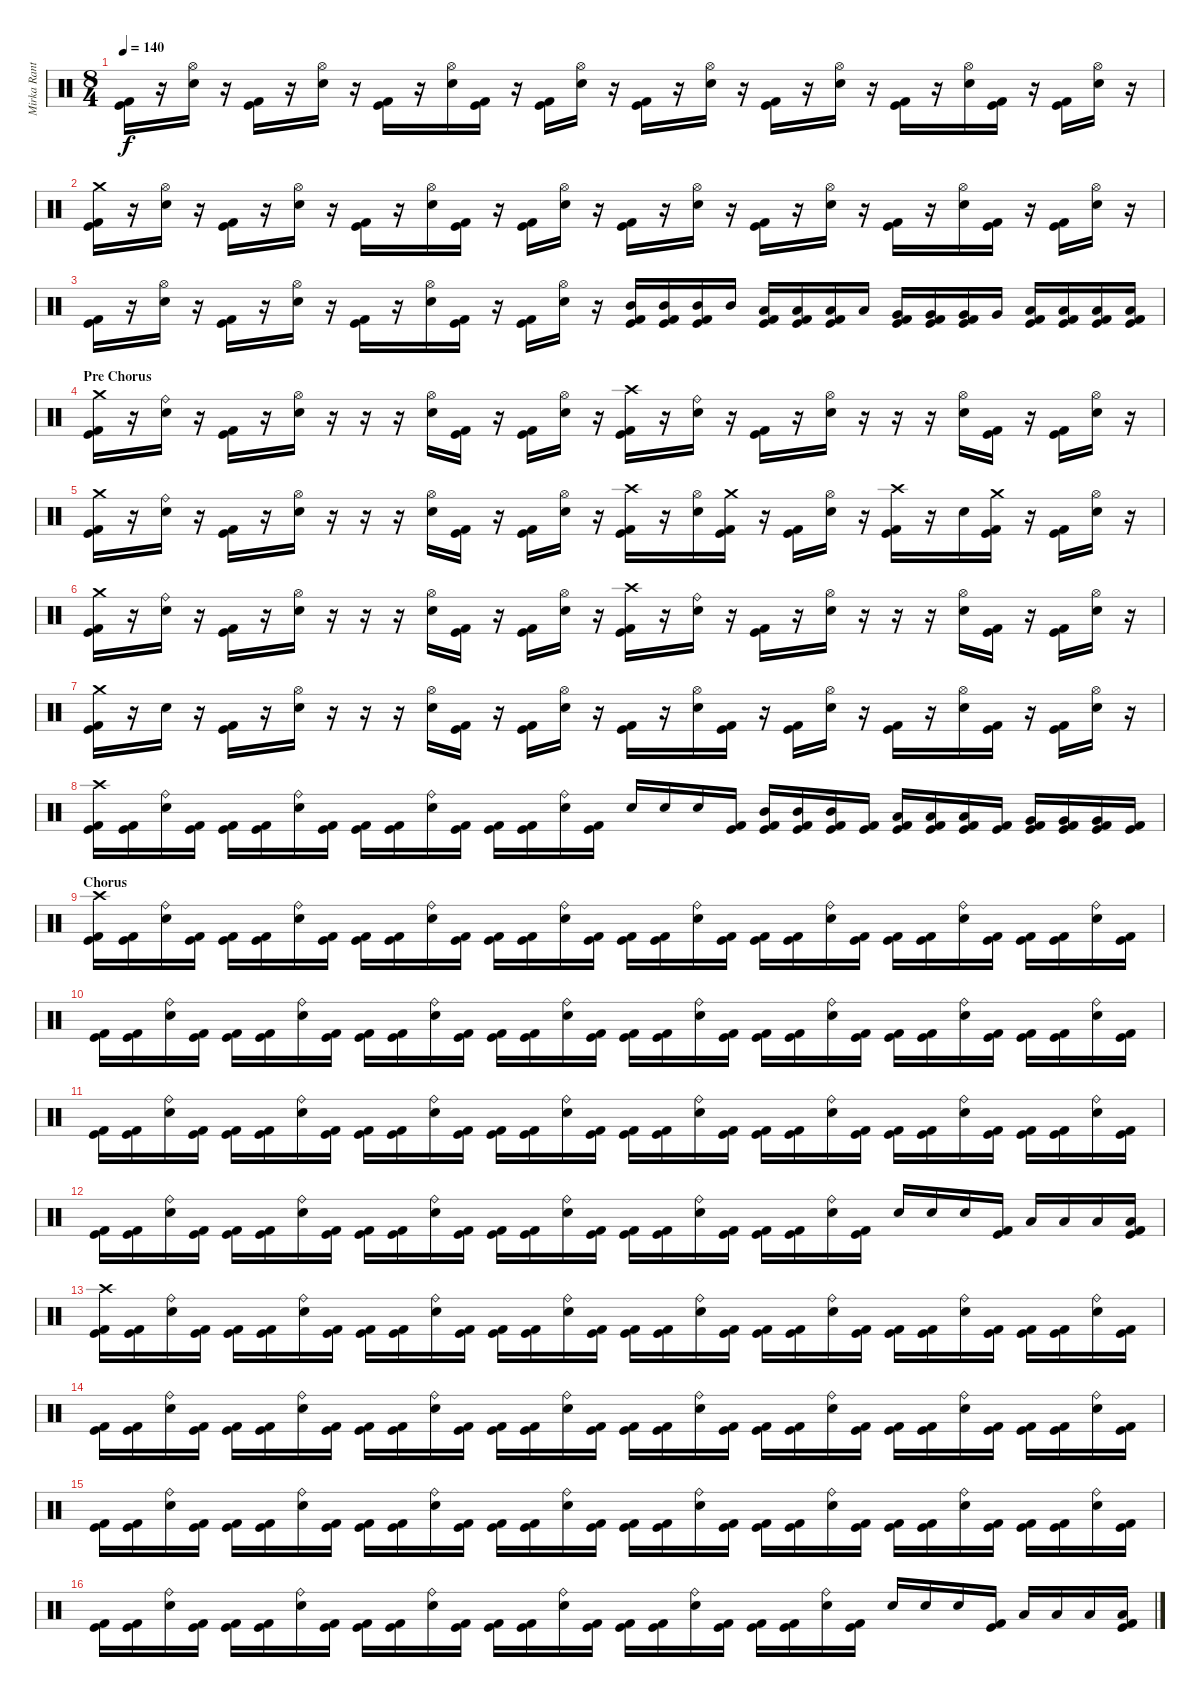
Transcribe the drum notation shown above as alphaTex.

\track ("Mirka Rantanen" "Mirka Rant") {instrument percussion}
\staff {score}
\articulation defaults
\ts (8 4)
\tempo 140
\clef neutral
\ks c
("Kick (hit) 2" "Kick (hit)").16{dy f} r.16 ("Hi-Hat (open)" "Electric Snare (hit)").16 r.16 ("Kick (hit) 2" "Kick (hit)").16 r.16 ("Hi-Hat (open)" "Electric Snare (hit)").16 r.16 ("Kick (hit) 2" "Kick (hit)").16 r.16 ("Hi-Hat (open)" "Electric Snare (hit)").16 ("Kick (hit) 2" "Kick (hit)").16 r.16 ("Kick (hit) 2" "Kick (hit)").16 ("Hi-Hat (open)" "Electric Snare (hit)").16 r.16 ("Kick (hit) 2" "Kick (hit)").16 r.16 ("Hi-Hat (open)" "Electric Snare (hit)").16 r.16 ("Kick (hit) 2" "Kick (hit)").16 r.16 ("Hi-Hat (open)" "Electric Snare (hit)").16 r.16 ("Kick (hit) 2" "Kick (hit)").16 r.16 ("Hi-Hat (open)" "Electric Snare (hit)").16 ("Kick (hit) 2" "Kick (hit)").16 r.16 ("Kick (hit) 2" "Kick (hit)").16 ("Hi-Hat (open)" "Electric Snare (hit)").16 r.16 |
("Crash medium (hit)" "Kick (hit) 2" "Kick (hit)").16 r.16 ("Hi-Hat (open)" "Electric Snare (hit)").16 r.16 ("Kick (hit) 2" "Kick (hit)").16 r.16 ("Hi-Hat (open)" "Electric Snare (hit)").16 r.16 ("Kick (hit) 2" "Kick (hit)").16 r.16 ("Hi-Hat (open)" "Electric Snare (hit)").16 ("Kick (hit) 2" "Kick (hit)").16 r.16 ("Kick (hit) 2" "Kick (hit)").16 ("Hi-Hat (open)" "Electric Snare (hit)").16 r.16 ("Kick (hit) 2" "Kick (hit)").16 r.16 ("Hi-Hat (open)" "Electric Snare (hit)").16 r.16 ("Kick (hit) 2" "Kick (hit)").16 r.16 ("Hi-Hat (open)" "Electric Snare (hit)").16 r.16 ("Kick (hit) 2" "Kick (hit)").16 r.16 ("Hi-Hat (open)" "Electric Snare (hit)").16 ("Kick (hit) 2" "Kick (hit)").16 r.16 ("Kick (hit) 2" "Kick (hit)").16 ("Hi-Hat (open)" "Electric Snare (hit)").16 r.16 |
("Kick (hit) 2" "Kick (hit)").16 r.16 ("Hi-Hat (open)" "Electric Snare (hit)").16 r.16 ("Kick (hit) 2" "Kick (hit)").16 r.16 ("Hi-Hat (open)" "Electric Snare (hit)").16 r.16 ("Kick (hit) 2" "Kick (hit)").16 r.16 ("Hi-Hat (open)" "Electric Snare (hit)").16 ("Kick (hit) 2" "Kick (hit)").16 r.16 ("Kick (hit) 2" "Kick (hit)").16 ("Hi-Hat (open)" "Electric Snare (hit)").16 r.16 ("Mid Tom (hit)" "Kick (hit) 2" "Kick (hit)").16 ("Mid Tom (hit)" "Kick (hit) 2" "Kick (hit)").16 ("Mid Tom (hit)" "Kick (hit) 2" "Kick (hit)").16 "Mid Tom (hit)".16 ("Low Tom (hit)" "Kick (hit) 2" "Kick (hit)").16 ("Low Tom (hit)" "Kick (hit) 2" "Kick (hit)").16 ("Low Tom (hit)" "Kick (hit) 2" "Kick (hit)").16 "Low Tom (hit)".16 ("Very Low Tom (hit)" "Kick (hit)" "Kick (hit) 2").16 ("Very Low Tom (hit)" "Kick (hit)" "Kick (hit) 2").16 ("Very Low Tom (hit)" "Kick (hit)" "Kick (hit) 2").16 "Very Low Tom (hit)".16 ("Low Floor Tom (hit)" "Kick (hit) 2" "Kick (hit)").16 ("Low Floor Tom (hit)" "Kick (hit) 2" "Kick (hit)").16 ("Low Floor Tom (hit)" "Kick (hit) 2" "Kick (hit)").16 ("Low Floor Tom (hit)" "Kick (hit) 2" "Kick (hit)").16 |
\section ("" "Pre Chorus")
("Crash medium (hit)" "Kick (hit) 2" "Kick (hit)").16 r.16 ("Ride (bell)" "Electric Snare (hit)").16 r.16 ("Kick (hit) 2" "Kick (hit)").16 r.16 ("Hi-Hat (open)" "Electric Snare (hit)").16 r.16 r.16 r.16 ("Hi-Hat (open)" "Electric Snare (hit)").16 ("Kick (hit) 2" "Kick (hit)").16 r.16 ("Kick (hit) 2" "Kick (hit)").16 ("Hi-Hat (open)" "Electric Snare (hit)").16 r.16 ("Crash high (hit)" "Kick (hit) 2" "Kick (hit)").16 r.16 ("Ride (bell)" "Electric Snare (hit)").16 r.16 ("Kick (hit) 2" "Kick (hit)").16 r.16 ("Hi-Hat (open)" "Electric Snare (hit)").16 r.16 r.16 r.16 ("Hi-Hat (open)" "Electric Snare (hit)").16 ("Kick (hit) 2" "Kick (hit)").16 r.16 ("Kick (hit) 2" "Kick (hit)").16 ("Hi-Hat (open)" "Electric Snare (hit)").16 r.16 |
("Crash medium (hit)" "Kick (hit) 2" "Kick (hit)").16 r.16 ("Ride (bell)" "Electric Snare (hit)").16 r.16 ("Kick (hit) 2" "Kick (hit)").16 r.16 ("Hi-Hat (open)" "Electric Snare (hit)").16 r.16 r.16 r.16 ("Hi-Hat (open)" "Electric Snare (hit)").16 ("Kick (hit) 2" "Kick (hit)").16 r.16 ("Kick (hit) 2" "Kick (hit)").16 ("Hi-Hat (open)" "Electric Snare (hit)").16 r.16 ("Crash high (hit)" "Kick (hit) 2" "Kick (hit)").16 r.16 ("Hi-Hat (open)" "Electric Snare (hit)").16 ("Crash medium (hit)" "Kick (hit) 2" "Kick (hit)").16 r.16 ("Kick (hit) 2" "Kick (hit)").16 ("Hi-Hat (open)" "Electric Snare (hit)").16 r.16 ("Crash high (hit)" "Kick (hit) 2" "Kick (hit)").16 r.16 "Electric Snare (hit)".16 ("Crash medium (hit)" "Kick (hit) 2" "Kick (hit)").16 r.16 ("Kick (hit) 2" "Kick (hit)").16 ("Hi-Hat (open)" "Electric Snare (hit)").16 r.16 |
("Crash medium (hit)" "Kick (hit) 2" "Kick (hit)").16 r.16 ("Ride (bell)" "Electric Snare (hit)").16 r.16 ("Kick (hit) 2" "Kick (hit)").16 r.16 ("Hi-Hat (open)" "Electric Snare (hit)").16 r.16 r.16 r.16 ("Hi-Hat (open)" "Electric Snare (hit)").16 ("Kick (hit) 2" "Kick (hit)").16 r.16 ("Kick (hit) 2" "Kick (hit)").16 ("Hi-Hat (open)" "Electric Snare (hit)").16 r.16 ("Crash high (hit)" "Kick (hit) 2" "Kick (hit)").16 r.16 ("Ride (bell)" "Electric Snare (hit)").16 r.16 ("Kick (hit) 2" "Kick (hit)").16 r.16 ("Hi-Hat (open)" "Electric Snare (hit)").16 r.16 r.16 r.16 ("Hi-Hat (open)" "Electric Snare (hit)").16 ("Kick (hit) 2" "Kick (hit)").16 r.16 ("Kick (hit) 2" "Kick (hit)").16 ("Hi-Hat (open)" "Electric Snare (hit)").16 r.16 |
("Crash medium (hit)" "Kick (hit) 2" "Kick (hit)").16 r.16 "Electric Snare (hit)".16 r.16 ("Kick (hit) 2" "Kick (hit)").16 r.16 ("Hi-Hat (open)" "Electric Snare (hit)").16 r.16 r.16 r.16 ("Hi-Hat (open)" "Electric Snare (hit)").16 ("Kick (hit) 2" "Kick (hit)").16 r.16 ("Kick (hit) 2" "Kick (hit)").16 ("Hi-Hat (open)" "Electric Snare (hit)").16 r.16 ("Kick (hit) 2" "Kick (hit)").16 r.16 ("Hi-Hat (open)" "Electric Snare (hit)").16 ("Kick (hit) 2" "Kick (hit)").16 r.16 ("Kick (hit) 2" "Kick (hit)").16 ("Hi-Hat (open)" "Electric Snare (hit)").16 r.16 ("Kick (hit) 2" "Kick (hit)").16 r.16 ("Hi-Hat (open)" "Electric Snare (hit)").16 ("Kick (hit) 2" "Kick (hit)").16 r.16 ("Kick (hit) 2" "Kick (hit)").16 ("Hi-Hat (open)" "Electric Snare (hit)").16 r.16 |
("Crash high (hit)" "Kick (hit) 2" "Kick (hit)").16 ("Kick (hit) 2" "Kick (hit)").16 ("Ride (bell)" "Electric Snare (hit)").16 ("Kick (hit) 2" "Kick (hit)").16 ("Kick (hit) 2" "Kick (hit)").16 ("Kick (hit) 2" "Kick (hit)").16 ("Ride (bell)" "Electric Snare (hit)").16 ("Kick (hit) 2" "Kick (hit)").16 ("Kick (hit) 2" "Kick (hit)").16 ("Kick (hit) 2" "Kick (hit)").16 ("Ride (bell)" "Electric Snare (hit)").16 ("Kick (hit) 2" "Kick (hit)").16 ("Kick (hit) 2" "Kick (hit)").16 ("Kick (hit) 2" "Kick (hit)").16 ("Ride (bell)" "Electric Snare (hit)").16 ("Kick (hit) 2" "Kick (hit)").16 "Electric Snare (hit)".16 "Electric Snare (hit)".16 "Electric Snare (hit)".16 ("Kick (hit) 2" "Kick (hit)").16 ("Mid Tom (hit)" "Kick (hit) 2" "Kick (hit)").16 ("Mid Tom (hit)" "Kick (hit) 2" "Kick (hit)").16 ("Mid Tom (hit)" "Kick (hit) 2" "Kick (hit)").16 ("Kick (hit) 2" "Kick (hit)").16 ("Low Tom (hit)" "Kick (hit) 2" "Kick (hit)").16 ("Low Tom (hit)" "Kick (hit) 2" "Kick (hit)").16 ("Low Tom (hit)" "Kick (hit) 2" "Kick (hit)").16 ("Kick (hit) 2" "Kick (hit)").16 ("Very Low Tom (hit)" "Kick (hit) 2" "Kick (hit)").16 ("Very Low Tom (hit)" "Kick (hit) 2" "Kick (hit)").16 ("Very Low Tom (hit)" "Kick (hit)" "Kick (hit) 2").16 ("Kick (hit) 2" "Kick (hit)").16 |
\section ("" "Chorus")
("Crash high (hit)" "Kick (hit) 2" "Kick (hit)").16 ("Kick (hit) 2" "Kick (hit)").16 ("Ride (bell)" "Electric Snare (hit)").16 ("Kick (hit) 2" "Kick (hit)").16 ("Kick (hit) 2" "Kick (hit)").16 ("Kick (hit) 2" "Kick (hit)").16 ("Ride (bell)" "Electric Snare (hit)").16 ("Kick (hit) 2" "Kick (hit)").16 ("Kick (hit) 2" "Kick (hit)").16 ("Kick (hit) 2" "Kick (hit)").16 ("Ride (bell)" "Electric Snare (hit)").16 ("Kick (hit) 2" "Kick (hit)").16 ("Kick (hit) 2" "Kick (hit)").16 ("Kick (hit) 2" "Kick (hit)").16 ("Ride (bell)" "Electric Snare (hit)").16 ("Kick (hit) 2" "Kick (hit)").16 ("Kick (hit) 2" "Kick (hit)").16 ("Kick (hit) 2" "Kick (hit)").16 ("Ride (bell)" "Electric Snare (hit)").16 ("Kick (hit) 2" "Kick (hit)").16 ("Kick (hit) 2" "Kick (hit)").16 ("Kick (hit) 2" "Kick (hit)").16 ("Ride (bell)" "Electric Snare (hit)").16 ("Kick (hit) 2" "Kick (hit)").16 ("Kick (hit) 2" "Kick (hit)").16 ("Kick (hit) 2" "Kick (hit)").16 ("Ride (bell)" "Electric Snare (hit)").16 ("Kick (hit) 2" "Kick (hit)").16 ("Kick (hit) 2" "Kick (hit)").16 ("Kick (hit) 2" "Kick (hit)").16 ("Ride (bell)" "Electric Snare (hit)").16 ("Kick (hit) 2" "Kick (hit)").16 |
("Kick (hit) 2" "Kick (hit)").16 ("Kick (hit) 2" "Kick (hit)").16 ("Ride (bell)" "Electric Snare (hit)").16 ("Kick (hit) 2" "Kick (hit)").16 ("Kick (hit) 2" "Kick (hit)").16 ("Kick (hit) 2" "Kick (hit)").16 ("Ride (bell)" "Electric Snare (hit)").16 ("Kick (hit) 2" "Kick (hit)").16 ("Kick (hit) 2" "Kick (hit)").16 ("Kick (hit) 2" "Kick (hit)").16 ("Ride (bell)" "Electric Snare (hit)").16 ("Kick (hit) 2" "Kick (hit)").16 ("Kick (hit) 2" "Kick (hit)").16 ("Kick (hit) 2" "Kick (hit)").16 ("Ride (bell)" "Electric Snare (hit)").16 ("Kick (hit) 2" "Kick (hit)").16 ("Kick (hit) 2" "Kick (hit)").16 ("Kick (hit) 2" "Kick (hit)").16 ("Ride (bell)" "Electric Snare (hit)").16 ("Kick (hit) 2" "Kick (hit)").16 ("Kick (hit) 2" "Kick (hit)").16 ("Kick (hit) 2" "Kick (hit)").16 ("Ride (bell)" "Electric Snare (hit)").16 ("Kick (hit) 2" "Kick (hit)").16 ("Kick (hit) 2" "Kick (hit)").16 ("Kick (hit) 2" "Kick (hit)").16 ("Ride (bell)" "Electric Snare (hit)").16 ("Kick (hit) 2" "Kick (hit)").16 ("Kick (hit) 2" "Kick (hit)").16 ("Kick (hit) 2" "Kick (hit)").16 ("Ride (bell)" "Electric Snare (hit)").16 ("Kick (hit) 2" "Kick (hit)").16 |
("Kick (hit) 2" "Kick (hit)").16 ("Kick (hit) 2" "Kick (hit)").16 ("Ride (bell)" "Electric Snare (hit)").16 ("Kick (hit) 2" "Kick (hit)").16 ("Kick (hit) 2" "Kick (hit)").16 ("Kick (hit) 2" "Kick (hit)").16 ("Ride (bell)" "Electric Snare (hit)").16 ("Kick (hit) 2" "Kick (hit)").16 ("Kick (hit) 2" "Kick (hit)").16 ("Kick (hit) 2" "Kick (hit)").16 ("Ride (bell)" "Electric Snare (hit)").16 ("Kick (hit) 2" "Kick (hit)").16 ("Kick (hit) 2" "Kick (hit)").16 ("Kick (hit) 2" "Kick (hit)").16 ("Ride (bell)" "Electric Snare (hit)").16 ("Kick (hit) 2" "Kick (hit)").16 ("Kick (hit) 2" "Kick (hit)").16 ("Kick (hit) 2" "Kick (hit)").16 ("Ride (bell)" "Electric Snare (hit)").16 ("Kick (hit) 2" "Kick (hit)").16 ("Kick (hit) 2" "Kick (hit)").16 ("Kick (hit) 2" "Kick (hit)").16 ("Ride (bell)" "Electric Snare (hit)").16 ("Kick (hit) 2" "Kick (hit)").16 ("Kick (hit) 2" "Kick (hit)").16 ("Kick (hit) 2" "Kick (hit)").16 ("Ride (bell)" "Electric Snare (hit)").16 ("Kick (hit) 2" "Kick (hit)").16 ("Kick (hit) 2" "Kick (hit)").16 ("Kick (hit) 2" "Kick (hit)").16 ("Ride (bell)" "Electric Snare (hit)").16 ("Kick (hit) 2" "Kick (hit)").16 |
("Kick (hit) 2" "Kick (hit)").16 ("Kick (hit) 2" "Kick (hit)").16 ("Ride (bell)" "Electric Snare (hit)").16 ("Kick (hit) 2" "Kick (hit)").16 ("Kick (hit) 2" "Kick (hit)").16 ("Kick (hit) 2" "Kick (hit)").16 ("Ride (bell)" "Electric Snare (hit)").16 ("Kick (hit) 2" "Kick (hit)").16 ("Kick (hit) 2" "Kick (hit)").16 ("Kick (hit) 2" "Kick (hit)").16 ("Ride (bell)" "Electric Snare (hit)").16 ("Kick (hit) 2" "Kick (hit)").16 ("Kick (hit) 2" "Kick (hit)").16 ("Kick (hit) 2" "Kick (hit)").16 ("Ride (bell)" "Electric Snare (hit)").16 ("Kick (hit) 2" "Kick (hit)").16 ("Kick (hit) 2" "Kick (hit)").16 ("Kick (hit) 2" "Kick (hit)").16 ("Ride (bell)" "Electric Snare (hit)").16 ("Kick (hit) 2" "Kick (hit)").16 ("Kick (hit) 2" "Kick (hit)").16 ("Kick (hit) 2" "Kick (hit)").16 ("Ride (bell)" "Electric Snare (hit)").16 ("Kick (hit) 2" "Kick (hit)").16 "Electric Snare (hit)".16 "Electric Snare (hit)".16 "Electric Snare (hit)".16 ("Kick (hit) 2" "Kick (hit)").16 "Low Tom (hit)".16 "Low Tom (hit)".16 "Low Tom (hit)".16 ("Low Tom (hit)" "Kick (hit) 2" "Kick (hit)").16 |
("Crash high (hit)" "Kick (hit) 2" "Kick (hit)").16 ("Kick (hit) 2" "Kick (hit)").16 ("Ride (bell)" "Electric Snare (hit)").16 ("Kick (hit) 2" "Kick (hit)").16 ("Kick (hit) 2" "Kick (hit)").16 ("Kick (hit) 2" "Kick (hit)").16 ("Ride (bell)" "Electric Snare (hit)").16 ("Kick (hit) 2" "Kick (hit)").16 ("Kick (hit) 2" "Kick (hit)").16 ("Kick (hit) 2" "Kick (hit)").16 ("Ride (bell)" "Electric Snare (hit)").16 ("Kick (hit) 2" "Kick (hit)").16 ("Kick (hit) 2" "Kick (hit)").16 ("Kick (hit) 2" "Kick (hit)").16 ("Ride (bell)" "Electric Snare (hit)").16 ("Kick (hit) 2" "Kick (hit)").16 ("Kick (hit) 2" "Kick (hit)").16 ("Kick (hit) 2" "Kick (hit)").16 ("Ride (bell)" "Electric Snare (hit)").16 ("Kick (hit) 2" "Kick (hit)").16 ("Kick (hit) 2" "Kick (hit)").16 ("Kick (hit) 2" "Kick (hit)").16 ("Ride (bell)" "Electric Snare (hit)").16 ("Kick (hit) 2" "Kick (hit)").16 ("Kick (hit) 2" "Kick (hit)").16 ("Kick (hit) 2" "Kick (hit)").16 ("Ride (bell)" "Electric Snare (hit)").16 ("Kick (hit) 2" "Kick (hit)").16 ("Kick (hit) 2" "Kick (hit)").16 ("Kick (hit) 2" "Kick (hit)").16 ("Ride (bell)" "Electric Snare (hit)").16 ("Kick (hit) 2" "Kick (hit)").16 |
("Kick (hit) 2" "Kick (hit)").16 ("Kick (hit) 2" "Kick (hit)").16 ("Ride (bell)" "Electric Snare (hit)").16 ("Kick (hit) 2" "Kick (hit)").16 ("Kick (hit) 2" "Kick (hit)").16 ("Kick (hit) 2" "Kick (hit)").16 ("Ride (bell)" "Electric Snare (hit)").16 ("Kick (hit) 2" "Kick (hit)").16 ("Kick (hit) 2" "Kick (hit)").16 ("Kick (hit) 2" "Kick (hit)").16 ("Ride (bell)" "Electric Snare (hit)").16 ("Kick (hit) 2" "Kick (hit)").16 ("Kick (hit) 2" "Kick (hit)").16 ("Kick (hit) 2" "Kick (hit)").16 ("Ride (bell)" "Electric Snare (hit)").16 ("Kick (hit) 2" "Kick (hit)").16 ("Kick (hit) 2" "Kick (hit)").16 ("Kick (hit) 2" "Kick (hit)").16 ("Ride (bell)" "Electric Snare (hit)").16 ("Kick (hit) 2" "Kick (hit)").16 ("Kick (hit) 2" "Kick (hit)").16 ("Kick (hit) 2" "Kick (hit)").16 ("Ride (bell)" "Electric Snare (hit)").16 ("Kick (hit) 2" "Kick (hit)").16 ("Kick (hit) 2" "Kick (hit)").16 ("Kick (hit) 2" "Kick (hit)").16 ("Ride (bell)" "Electric Snare (hit)").16 ("Kick (hit) 2" "Kick (hit)").16 ("Kick (hit) 2" "Kick (hit)").16 ("Kick (hit) 2" "Kick (hit)").16 ("Ride (bell)" "Electric Snare (hit)").16 ("Kick (hit) 2" "Kick (hit)").16 |
("Kick (hit) 2" "Kick (hit)").16 ("Kick (hit) 2" "Kick (hit)").16 ("Ride (bell)" "Electric Snare (hit)").16 ("Kick (hit) 2" "Kick (hit)").16 ("Kick (hit) 2" "Kick (hit)").16 ("Kick (hit) 2" "Kick (hit)").16 ("Ride (bell)" "Electric Snare (hit)").16 ("Kick (hit) 2" "Kick (hit)").16 ("Kick (hit) 2" "Kick (hit)").16 ("Kick (hit) 2" "Kick (hit)").16 ("Ride (bell)" "Electric Snare (hit)").16 ("Kick (hit) 2" "Kick (hit)").16 ("Kick (hit) 2" "Kick (hit)").16 ("Kick (hit) 2" "Kick (hit)").16 ("Ride (bell)" "Electric Snare (hit)").16 ("Kick (hit) 2" "Kick (hit)").16 ("Kick (hit) 2" "Kick (hit)").16 ("Kick (hit) 2" "Kick (hit)").16 ("Ride (bell)" "Electric Snare (hit)").16 ("Kick (hit) 2" "Kick (hit)").16 ("Kick (hit) 2" "Kick (hit)").16 ("Kick (hit) 2" "Kick (hit)").16 ("Ride (bell)" "Electric Snare (hit)").16 ("Kick (hit) 2" "Kick (hit)").16 ("Kick (hit) 2" "Kick (hit)").16 ("Kick (hit) 2" "Kick (hit)").16 ("Ride (bell)" "Electric Snare (hit)").16 ("Kick (hit) 2" "Kick (hit)").16 ("Kick (hit) 2" "Kick (hit)").16 ("Kick (hit) 2" "Kick (hit)").16 ("Ride (bell)" "Electric Snare (hit)").16 ("Kick (hit) 2" "Kick (hit)").16 |
("Kick (hit) 2" "Kick (hit)").16 ("Kick (hit) 2" "Kick (hit)").16 ("Ride (bell)" "Electric Snare (hit)").16 ("Kick (hit) 2" "Kick (hit)").16 ("Kick (hit) 2" "Kick (hit)").16 ("Kick (hit) 2" "Kick (hit)").16 ("Ride (bell)" "Electric Snare (hit)").16 ("Kick (hit) 2" "Kick (hit)").16 ("Kick (hit) 2" "Kick (hit)").16 ("Kick (hit) 2" "Kick (hit)").16 ("Ride (bell)" "Electric Snare (hit)").16 ("Kick (hit) 2" "Kick (hit)").16 ("Kick (hit) 2" "Kick (hit)").16 ("Kick (hit) 2" "Kick (hit)").16 ("Ride (bell)" "Electric Snare (hit)").16 ("Kick (hit) 2" "Kick (hit)").16 ("Kick (hit) 2" "Kick (hit)").16 ("Kick (hit) 2" "Kick (hit)").16 ("Ride (bell)" "Electric Snare (hit)").16 ("Kick (hit) 2" "Kick (hit)").16 ("Kick (hit) 2" "Kick (hit)").16 ("Kick (hit) 2" "Kick (hit)").16 ("Ride (bell)" "Electric Snare (hit)").16 ("Kick (hit) 2" "Kick (hit)").16 "Electric Snare (hit)".16 "Electric Snare (hit)".16 "Electric Snare (hit)".16 ("Kick (hit) 2" "Kick (hit)").16 "Low Tom (hit)".16 "Low Tom (hit)".16 "Low Tom (hit)".16 ("Low Tom (hit)" "Kick (hit) 2" "Kick (hit)").16
